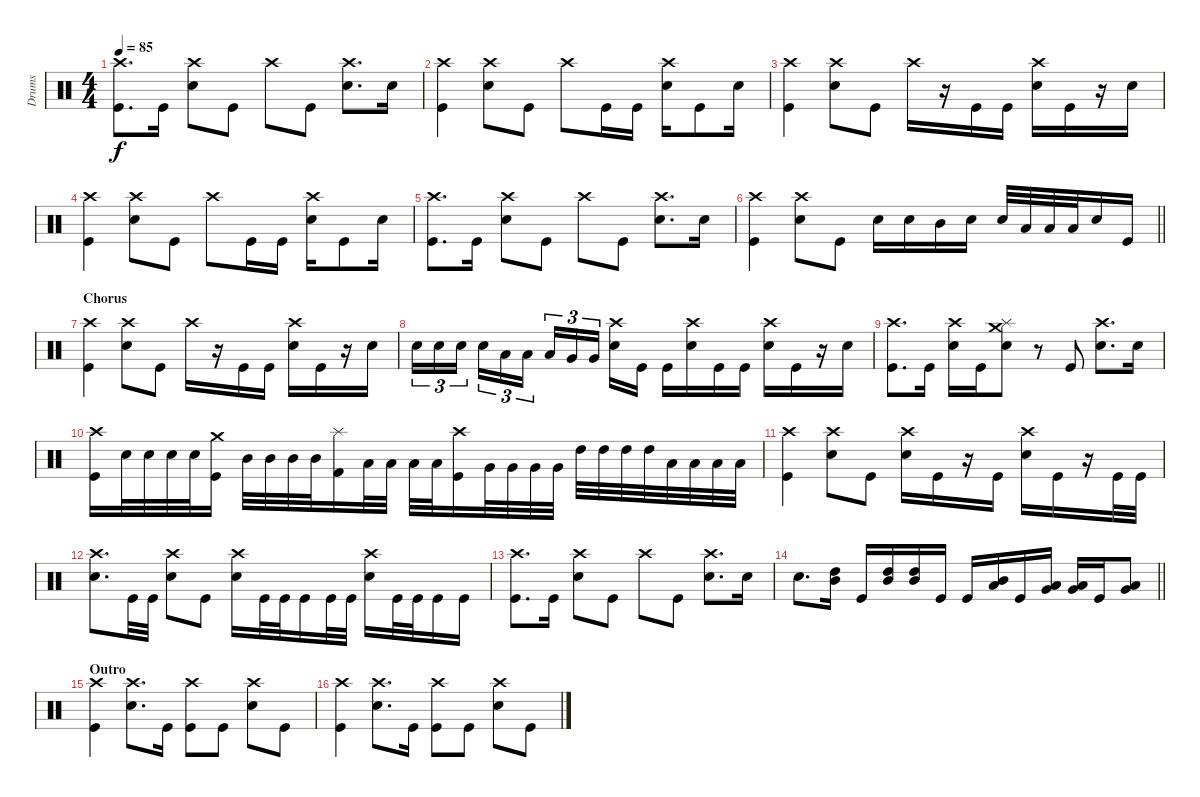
\track ("Drums" "Drums") {instrument percussion}
\staff {score}
\articulation defaults
\ts (4 4)
\tempo 85
\clef neutral
\ks c
("Crash high (hit)" "Kick (hit)").8{d dy f} "Kick (hit)".16 ("Snare (hit) 2" "Crash high (hit)").8 "Kick (hit)".8 "Crash high (hit)".8 "Kick (hit)".8 ("Snare (hit) 2" "Crash high (hit)").8{d} "Snare (hit) 2".16 |
("Crash high (hit)" "Kick (hit)").4 ("Snare (hit) 2" "Crash high (hit)").8 "Kick (hit)".8 "Crash high (hit)".8 "Kick (hit)".16 "Kick (hit)".16 ("Crash high (hit)" "Snare (hit) 2").16 "Kick (hit)".8 "Snare (hit) 2".16 |
("Crash high (hit)" "Kick (hit)").4 ("Snare (hit) 2" "Crash high (hit)").8 "Kick (hit)".8 "Crash high (hit)".16 r.16 "Kick (hit)".16 "Kick (hit)".16 ("Crash high (hit)" "Snare (hit) 2").16 "Kick (hit)".16 r.16 "Snare (hit) 2".16 |
("Crash high (hit)" "Kick (hit)").4 ("Snare (hit) 2" "Crash high (hit)").8 "Kick (hit)".8 "Crash high (hit)".8 "Kick (hit)".16 "Kick (hit)".16 ("Crash high (hit)" "Snare (hit) 2").16 "Kick (hit)".8 "Snare (hit) 2".16 |
("Crash high (hit)" "Kick (hit)").8{d} "Kick (hit)".16 ("Snare (hit) 2" "Crash high (hit)").8 "Kick (hit)".8 "Crash high (hit)".8 "Kick (hit)".8 ("Snare (hit) 2" "Crash high (hit)").8{d} "Snare (hit) 2".16 |
\barLineRight lightlight
("Crash high (hit)" "Kick (hit)").4 ("Snare (hit) 2" "Crash high (hit)").8 "Kick (hit)".8 "Snare (hit) 2".16 "Snare (hit) 2".16 "Mid Tom (hit)".16 "Snare (hit) 2".16 "Snare (hit) 2".32 "Low Tom (hit)".32 "Low Tom (hit)".32 "Low Tom (hit)".32 "Snare (hit) 2".16 "Kick (hit)".16 |
\section ("" "Chorus")
("Crash high (hit)" "Kick (hit)").4 ("Snare (hit) 2" "Crash high (hit)").8 "Kick (hit)".8 "Crash high (hit)".16 r.16 "Kick (hit)".16 "Kick (hit)".16 ("Crash high (hit)" "Snare (hit) 2").16 "Kick (hit)".16 r.16 "Snare (hit) 2".16 |
"Snare (hit) 2".16{tu (3 2)} "Snare (hit) 2".16{tu (3 2)} "Snare (hit) 2".16{tu (3 2) beam splitsecondary} "Snare (hit) 2".16{tu (3 2)} "Low Tom (hit)".16{tu (3 2)} "Low Tom (hit)".16{tu (3 2)} "Low Tom (hit)".16{tu (3 2)} "Very Low Tom (hit)".16{tu (3 2)} "Very Low Tom (hit)".16{tu (3 2) beam splitsecondary} ("Crash high (hit)" "Snare (hit) 2").16 "Kick (hit)".16 "Kick (hit)".16 ("Crash high (hit)" "Snare (hit) 2").16 "Kick (hit)".16 "Kick (hit)".16 ("Snare (hit) 2" "Crash high (hit)").16 "Kick (hit)".16 r.16 "Snare (hit) 2".16 |
("Crash high (hit)" "Kick (hit)").8{d} "Kick (hit)".16 ("Snare (hit) 2" "Crash high (hit)").16 "Kick (hit)".16 ("Snare (hit) 2" "Splash (hit)" "Crash medium (hit)").8 r.8 "Kick (hit)".8 ("Snare (hit) 2" "Crash high (hit)").8{d} "Snare (hit) 2".16 |
("Crash high (hit)" "Kick (hit)").16 "Snare (hit) 2".32 "Snare (hit) 2".32 "Snare (hit) 2".32 "Snare (hit) 2".32 ("Crash medium (hit)" "Kick (hit)").16 "Mid Tom (hit)".32 "Mid Tom (hit)".32 "Mid Tom (hit)".32 "Mid Tom (hit)".32 ("Splash (hit)" "Kick (hit) 2").16 "Low Tom (hit)".32 "Low Tom (hit)".32 "Low Tom (hit)".32 "Low Tom (hit)".32 ("Crash high (hit)" "Kick (hit)").16 "Very Low Tom (hit)".32 "Very Low Tom (hit)".32 "Very Low Tom (hit)".32 "Very Low Tom (hit)".32 "High Tom (hit)".32 "High Tom (hit)".32 "High Tom (hit)".32 "High Tom (hit)".32 "Low Floor Tom (hit)".32 "Low Floor Tom (hit)".32 "Low Floor Tom (hit)".32 "Low Floor Tom (hit)".32 |
("Crash high (hit)" "Kick (hit)").4 ("Crash high (hit)" "Snare (hit) 2").8 "Kick (hit)".8 ("Crash high (hit)" "Snare (hit) 2").16 "Kick (hit)".16 r.16 "Kick (hit)".16 ("Crash high (hit)" "Snare (hit) 2").16 "Kick (hit)".16 r.16 "Kick (hit)".32 "Kick (hit)".32 |
("Crash high (hit)" "Snare (hit) 2").8{d} "Kick (hit)".32 "Kick (hit)".32 ("Snare (hit) 2" "Crash high (hit)").8 "Kick (hit)".8 ("Snare (hit) 2" "Crash high (hit)").16 "Kick (hit)".32 "Kick (hit)".32 "Kick (hit)".16 "Kick (hit)".32 "Kick (hit)".32 ("Crash high (hit)" "Snare (hit) 2").16 "Kick (hit)".32 "Kick (hit)".32 "Kick (hit)".16 "Kick (hit)".16 |
("Crash high (hit)" "Kick (hit)").8{d} "Kick (hit)".16 ("Snare (hit) 2" "Crash high (hit)").8 "Kick (hit)".8 "Crash high (hit)".8 "Kick (hit)".8 ("Snare (hit) 2" "Crash high (hit)").8{d} "Snare (hit) 2".16 |
\barLineRight lightlight "Snare (hit) 2".8{d}
("High Tom (hit)" "Mid Tom (hit)").16 "Kick (hit)".16 ("High Tom (hit)" "Mid Tom (hit)").16 ("High Tom (hit)" "Mid Tom (hit)").16 "Kick (hit)".16 "Kick (hit)".16 ("Mid Tom (hit)" "Low Tom (hit)").16 "Kick (hit)".16 ("Very Low Tom (hit)" "Low Tom (hit)").16 ("Very Low Tom (hit)" "Low Tom (hit)").16 "Kick (hit)".16 ("Very Low Tom (hit)" "Low Floor Tom (hit)").8 |
\section ("" "Outro")
("Crash high (hit)" "Kick (hit)").4 ("Crash high (hit)" "Snare (hit) 2").8{d} "Kick (hit)".16 ("Crash high (hit)" "Kick (hit)").8 "Kick (hit)".8 ("Crash high (hit)" "Snare (hit) 2").8 "Kick (hit)".8 |
("Crash high (hit)" "Kick (hit)").4 ("Crash high (hit)" "Snare (hit) 2").8{d} "Kick (hit)".16 ("Crash high (hit)" "Kick (hit)").8 "Kick (hit)".8 ("Crash high (hit)" "Snare (hit) 2").8 "Kick (hit)".8
